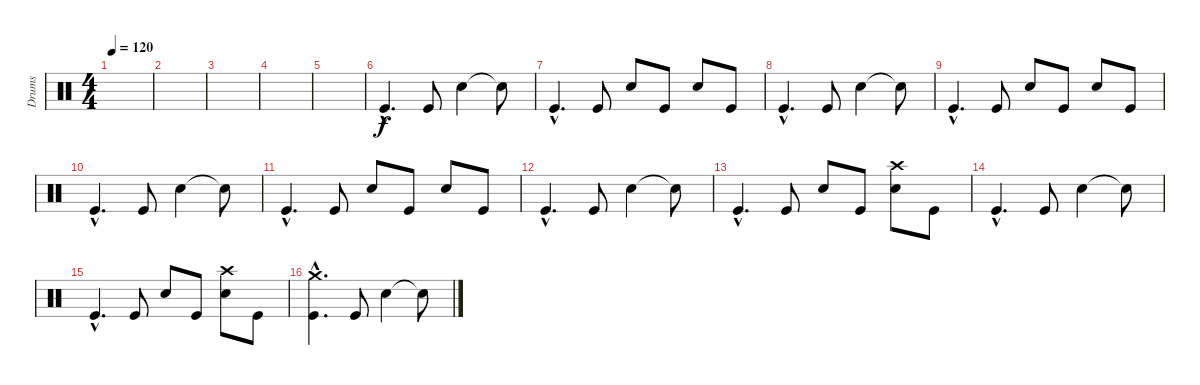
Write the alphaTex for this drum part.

\track ("Drums" "Drums") {instrument percussion}
\staff {score}
\articulation defaults
\ts (4 4)
\tempo 120
\clef neutral
\ks c
|
|
|
|
|
"Kick (hit)"{hac}.4{d} "Kick (hit)".8 "Electric Snare (hit)".4 "Snare (hit)"{t}.8 |
"Kick (hit)"{hac}.4{d} "Kick (hit)".8 "Electric Snare (hit)".8 "Kick (hit)".8 "Electric Snare (hit)".8 "Kick (hit)".8 |
"Kick (hit)"{hac}.4{d} "Kick (hit)".8 "Electric Snare (hit)".4 "Snare (hit)"{t}.8 |
"Kick (hit)"{hac}.4{d} "Kick (hit)".8 "Electric Snare (hit)".8 "Kick (hit)".8 "Electric Snare (hit)".8 "Kick (hit)".8 |
"Kick (hit)"{hac}.4{d} "Kick (hit)".8 "Electric Snare (hit)".4 "Snare (hit)"{t}.8 |
"Kick (hit)"{hac}.4{d} "Kick (hit)".8 "Electric Snare (hit)".8 "Kick (hit)".8 "Electric Snare (hit)".8 "Kick (hit)".8 |
"Kick (hit)"{hac}.4{d} "Kick (hit)".8 "Electric Snare (hit)".4 "Snare (hit)"{t}.8 |
"Kick (hit)"{hac}.4{d} "Kick (hit)".8 "Electric Snare (hit)".8 "Kick (hit)".8 ("Electric Snare (hit)" "Crash high (hit)").8 "Kick (hit)".8 |
"Kick (hit)"{hac}.4{d} "Kick (hit)".8 "Electric Snare (hit)".4 "Snare (hit)"{t}.8 |
"Kick (hit)"{hac}.4{d} "Kick (hit)".8 "Electric Snare (hit)".8 "Kick (hit)".8 ("Electric Snare (hit)" "Crash high (hit)").8 "Kick (hit)".8 |
("Kick (hit)"{hac} "Crash medium (hit)"{hac}).4{d} "Kick (hit)".8 "Electric Snare (hit)".4 "Snare (hit)"{t}.8
